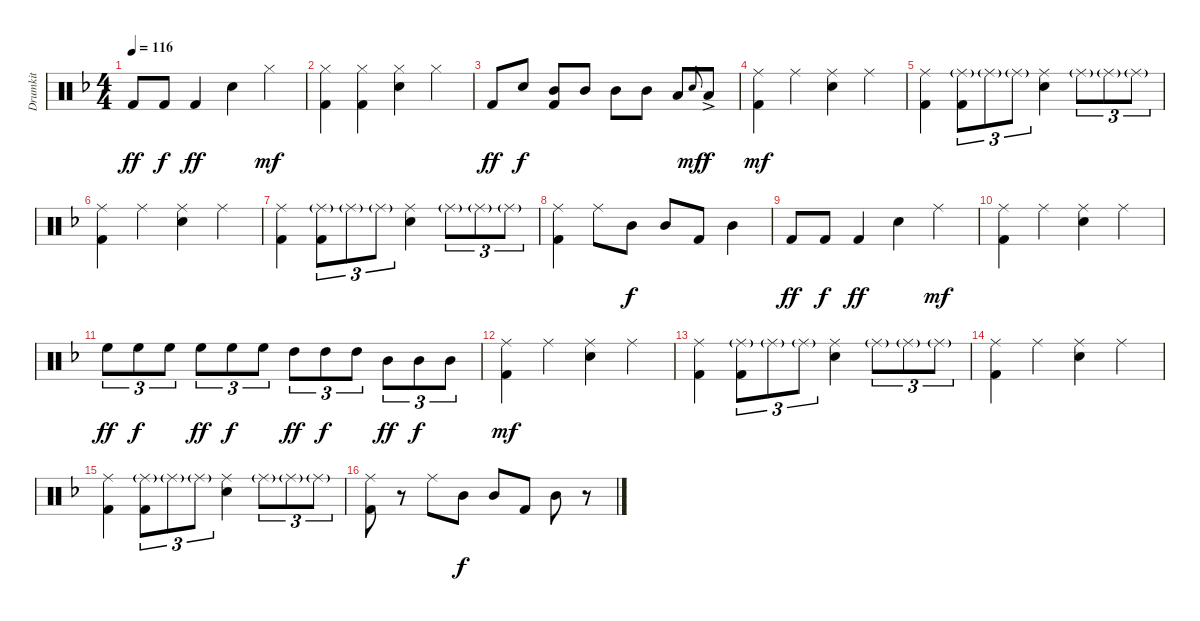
\track ("Drumkit" "Drumkit") {instrument percussion}
\staff {score}
\articulation defaults
\ts (4 4)
\tempo 116
\clef neutral
\ks dminor "Kick (hit) 2".8{dy ff} "Kick (hit) 2".8{dy f} "Kick (hit) 2".4{dy ff} "Snare (hit) 2".4 "Hi-Hat (closed)".4{dy mf}
|
("Hi-Hat (closed)" "Kick (hit) 2").4 ("Hi-Hat (closed)" "Kick (hit) 2").4 ("Hi-Hat (closed)" "Snare (hit) 2").4 "Hi-Hat (closed)".4 |
"Kick (hit) 2".8{dy ff} "Snare (hit) 2".8{dy f} ("Mid Tom (hit)" "Kick (hit) 2").8 "Mid Tom (hit)".8 "Mid Tom (hit)".8 "Mid Tom (hit)".8 "Low Tom (hit)".8 "Snare (hit)".8{gr onbeat dy mf} "Low Tom (hit)"{ac}.8{dy f} |
("Ride (middle)" "Kick (hit) 2").4{dy mf} "Ride (middle)".4 ("Ride (middle)" "Snare (hit) 2").4 "Ride (middle)".4 |
("Ride (middle)" "Kick (hit) 2").4 ("Ride (middle)"{g} "Kick (hit) 2").8{tu (3 2)} "Ride (middle)"{g}.8{tu (3 2)} "Ride (middle)"{g}.8{tu (3 2)} ("Ride (middle)" "Snare (hit) 2").4 "Ride (middle)"{g}.8{tu (3 2)} "Ride (middle)"{g}.8{tu (3 2)} "Ride (middle)"{g}.8{tu (3 2)} |
("Ride (middle)" "Kick (hit) 2").4 "Ride (middle)".4 ("Ride (middle)" "Snare (hit) 2").4 "Ride (middle)".4 |
("Ride (middle)" "Kick (hit) 2").4 ("Ride (middle)"{g} "Kick (hit) 2").8{tu (3 2)} "Ride (middle)"{g}.8{tu (3 2)} "Ride (middle)"{g}.8{tu (3 2)} ("Ride (middle)" "Snare (hit) 2").4 "Ride (middle)"{g}.8{tu (3 2)} "Ride (middle)"{g}.8{tu (3 2)} "Ride (middle)"{g}.8{tu (3 2)} |
("Ride (middle)" "Kick (hit) 2").4 "Ride (middle)".8 "Mid Tom (hit)".8{dy f} "Mid Tom (hit)".8 "Kick (hit) 2".8 "Mid Tom (hit)".4 |
"Kick (hit) 2".8{dy ff} "Kick (hit) 2".8{dy f} "Kick (hit) 2".4{dy ff} "Snare (hit) 2".4 "Ride (middle)".4{dy mf} |
("Ride (middle)" "Kick (hit) 2").4 "Ride (middle)".4 ("Ride (middle)" "Snare (hit) 2").4 "Ride (middle)".4 |
"High Floor Tom (hit)".8{tu (3 2) dy ff} "High Floor Tom (hit)".8{tu (3 2) dy f} "High Floor Tom (hit)".8{tu (3 2)} "High Floor Tom (hit)".8{tu (3 2) dy ff} "High Floor Tom (hit)".8{tu (3 2) dy f} "High Floor Tom (hit)".8{tu (3 2)} "High Tom (hit)".8{tu (3 2) dy ff} "High Tom (hit)".8{tu (3 2) dy f} "High Tom (hit)".8{tu (3 2)} "Mid Tom (hit)".8{tu (3 2) dy ff} "Mid Tom (hit)".8{tu (3 2) dy f} "Mid Tom (hit)".8{tu (3 2)} |
("Ride (middle)" "Kick (hit) 2").4{dy mf} "Ride (middle)".4 ("Ride (middle)" "Snare (hit) 2").4 "Ride (middle)".4 |
("Ride (middle)" "Kick (hit) 2").4 ("Ride (middle)"{g} "Kick (hit) 2").8{tu (3 2)} "Ride (middle)"{g}.8{tu (3 2)} "Ride (middle)"{g}.8{tu (3 2)} ("Ride (middle)" "Snare (hit) 2").4 "Ride (middle)"{g}.8{tu (3 2)} "Ride (middle)"{g}.8{tu (3 2)} "Ride (middle)"{g}.8{tu (3 2)} |
("Ride (middle)" "Kick (hit) 2").4 "Ride (middle)".4 ("Ride (middle)" "Snare (hit) 2").4 "Ride (middle)".4 |
("Ride (middle)" "Kick (hit) 2").4 ("Ride (middle)"{g} "Kick (hit) 2").8{tu (3 2)} "Ride (middle)"{g}.8{tu (3 2)} "Ride (middle)"{g}.8{tu (3 2)} ("Ride (middle)" "Snare (hit) 2").4 "Ride (middle)"{g}.8{tu (3 2)} "Ride (middle)"{g}.8{tu (3 2)} "Ride (middle)"{g}.8{tu (3 2)} |
("Ride (middle)" "Kick (hit) 2").8 r.8 "Ride (middle)".8 "Mid Tom (hit)".8{dy f} "Mid Tom (hit)".8 "Kick (hit) 2".8 "Mid Tom (hit)".8 r.8
